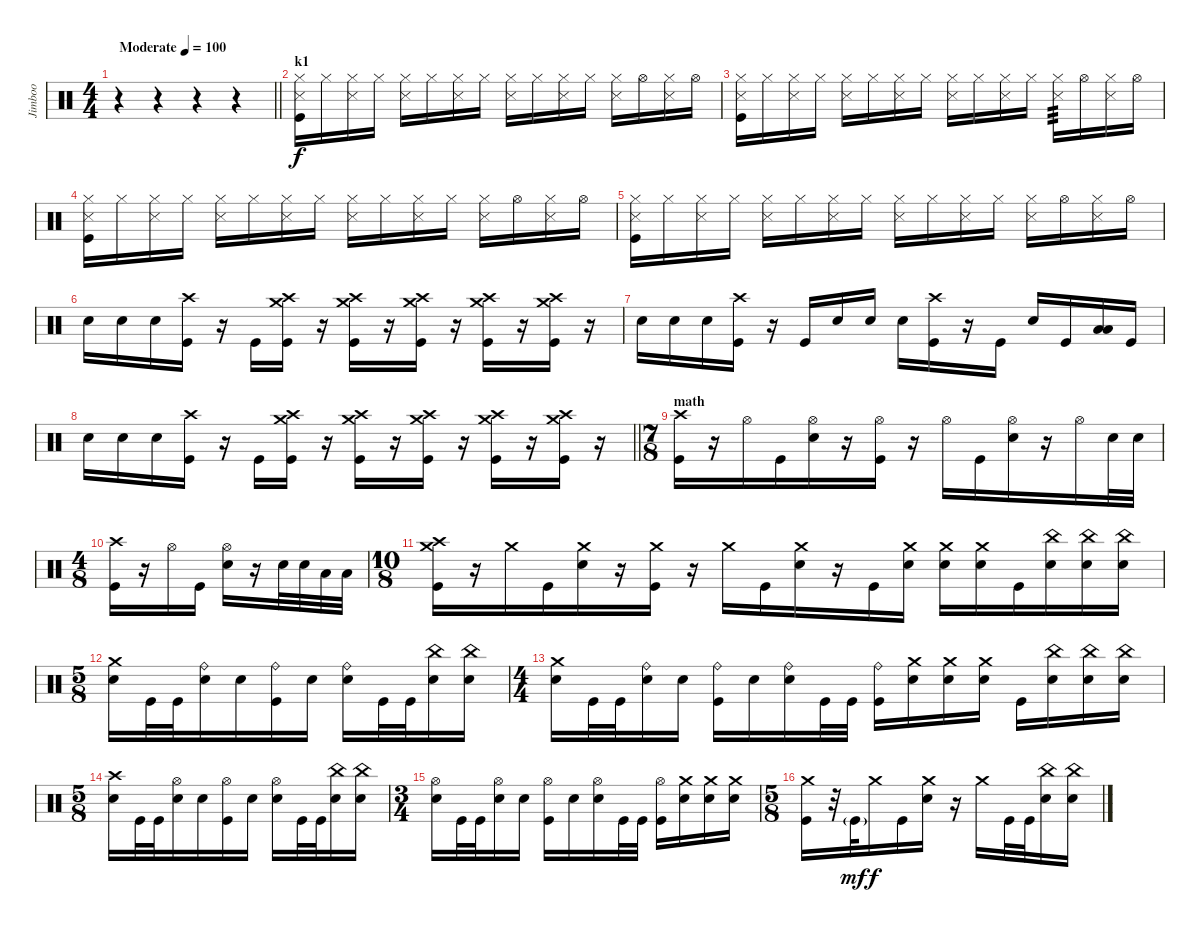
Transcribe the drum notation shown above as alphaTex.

\track ("Jimboo" "Jimboo") {instrument percussion}
\staff
\articulation defaults
\ts (4 4)
\tempo (100 "Moderate")
\clef neutral
\barLineRight lightlight
\ks c
r.4{dy f} r.4 r.4 r.4 |
\section ("" "k1")
("Snare (side stick) 3" "Hi-Hat (closed)" "Kick (hit)").16 "Hi-Hat (closed)".16 ("Snare (side stick) 3" "Hi-Hat (closed)").16 "Hi-Hat (closed)".16 ("Snare (side stick) 3" "Hi-Hat (closed)").16 "Hi-Hat (closed)".16 ("Snare (side stick) 3" "Hi-Hat (closed)").16 "Hi-Hat (closed)".16 ("Snare (side stick) 3" "Hi-Hat (closed)").16 "Hi-Hat (closed)".16 ("Snare (side stick) 3" "Hi-Hat (closed)").16 "Hi-Hat (closed)".16 ("Snare (side stick) 3" "Hi-Hat (closed)").16 "Hi-Hat (open)".16 ("Snare (side stick) 3" "Hi-Hat (closed)").16 "Hi-Hat (open)".16 |
("Snare (side stick) 3" "Hi-Hat (closed)" "Kick (hit)").16 "Hi-Hat (closed)".16 ("Snare (side stick) 3" "Hi-Hat (closed)").16 "Hi-Hat (closed)".16 ("Snare (side stick) 3" "Hi-Hat (closed)").16 "Hi-Hat (closed)".16 ("Snare (side stick) 3" "Hi-Hat (closed)").16 "Hi-Hat (closed)".16 ("Snare (side stick) 3" "Hi-Hat (closed)").16 "Hi-Hat (closed)".16 ("Snare (side stick) 3" "Hi-Hat (closed)").16 "Hi-Hat (closed)".16 ("Snare (side stick) 3" "Hi-Hat (closed)").16{tp 3} "Hi-Hat (open)".16 ("Snare (side stick) 3" "Hi-Hat (closed)").16 "Hi-Hat (open)".16 |
("Snare (side stick) 3" "Hi-Hat (closed)" "Kick (hit)").16 "Hi-Hat (closed)".16 ("Snare (side stick) 3" "Hi-Hat (closed)").16 "Hi-Hat (closed)".16 ("Snare (side stick) 3" "Hi-Hat (closed)").16 "Hi-Hat (closed)".16 ("Snare (side stick) 3" "Hi-Hat (closed)").16 "Hi-Hat (closed)".16 ("Snare (side stick) 3" "Hi-Hat (closed)").16 "Hi-Hat (closed)".16 ("Snare (side stick) 3" "Hi-Hat (closed)").16 "Hi-Hat (closed)".16 ("Snare (side stick) 3" "Hi-Hat (closed)").16 "Hi-Hat (open)".16 ("Snare (side stick) 3" "Hi-Hat (closed)").16 "Hi-Hat (open)".16 |
("Snare (side stick) 3" "Hi-Hat (closed)" "Kick (hit)").16 "Hi-Hat (closed)".16 ("Snare (side stick) 3" "Hi-Hat (closed)").16 "Hi-Hat (closed)".16 ("Snare (side stick) 3" "Hi-Hat (closed)").16 "Hi-Hat (closed)".16 ("Snare (side stick) 3" "Hi-Hat (closed)").16 "Hi-Hat (closed)".16 ("Snare (side stick) 3" "Hi-Hat (closed)").16 "Hi-Hat (closed)".16 ("Snare (side stick) 3" "Hi-Hat (closed)").16 "Hi-Hat (closed)".16 ("Snare (side stick) 3" "Hi-Hat (closed)").16 "Hi-Hat (open)".16 ("Snare (side stick) 3" "Hi-Hat (closed)").16 "Hi-Hat (open)".16 |
"Snare (hit) 2".16 "Snare (hit) 2".16 "Snare (hit) 2".16 ("Kick (hit)" "Crash high (hit)").16 r.16 "Kick (hit)".16 ("Kick (hit)" "Crash medium (hit)" "Crash high (hit)").16 r.16 ("Kick (hit)" "Crash medium (hit)" "Crash high (hit)").16 r.16 ("Kick (hit)" "Crash medium (hit)" "Crash high (hit)").16 r.16 ("Kick (hit)" "Crash medium (hit)" "Crash high (hit)").16 r.16 ("Kick (hit)" "Crash medium (hit)" "Crash high (hit)").16 r.16 |
"Snare (hit) 2".16 "Snare (hit) 2".16 "Snare (hit) 2".16 ("Kick (hit)" "Crash high (hit)").16 r.16 "Kick (hit)".16 "Snare (hit) 2".16 "Snare (hit) 2".16 "Snare (hit) 2".16 ("Kick (hit)" "Crash high (hit)").16 r.16 "Kick (hit)".16 "Snare (hit) 2".16 "Kick (hit)".16 ("Low Tom (hit)" "Low Floor Tom (hit)").16 "Kick (hit)".16 |
\barLineRight lightlight "Snare (hit) 2".16 "Snare (hit) 2".16 "Snare (hit) 2".16
("Kick (hit)" "Crash high (hit)").16 r.16 "Kick (hit)".16 ("Kick (hit)" "Crash medium (hit)" "Crash high (hit)").16 r.16 ("Kick (hit)" "Crash medium (hit)" "Crash high (hit)").16 r.16 ("Kick (hit)" "Crash medium (hit)" "Crash high (hit)").16 r.16 ("Kick (hit)" "Crash medium (hit)" "Crash high (hit)").16 r.16 ("Kick (hit)" "Crash medium (hit)" "Crash high (hit)").16 r.16 |
\ts (7 8)
\section ("" "math")
("Crash high (hit)" "Kick (hit)").16 r.16 "Hi-Hat (open)".16 "Kick (hit)".16 ("Hi-Hat (open)" "Snare (hit) 2").16 r.16 ("Hi-Hat (open)" "Kick (hit)").16 r.16 "Hi-Hat (open)".16 "Kick (hit)".16 ("Hi-Hat (open)" "Snare (hit) 2").16 r.16 "Hi-Hat (open)".16 "Snare (hit) 2".32 "Snare (hit) 2".32 |
\ts (4 8)
("Crash high (hit)" "Kick (hit)").16 r.16 "Hi-Hat (open)".16 "Kick (hit)".16 ("Hi-Hat (open)" "Snare (hit) 2").16 r.16 "Snare (hit) 2".32 "Snare (hit) 2".32 "Low Tom (hit)".32 "Low Tom (hit)".32 |
\ts (10 8)
("Crash medium (hit)" "Crash high (hit)" "Kick (hit)").16 r.16 "Crash medium (hit)".16 "Kick (hit)".16 ("Crash medium (hit)" "Snare (hit) 2").16 r.16 ("Crash medium (hit)" "Kick (hit)").16 r.16 "Crash medium (hit)".16 "Kick (hit)".16 ("Crash medium (hit)" "Snare (hit) 2").16 r.16 "Kick (hit)".16 ("Snare (hit) 2" "Crash medium (hit)").16 ("Snare (hit) 2" "Crash medium (hit)").16 ("Snare (hit) 2" "Crash medium (hit)").16 "Kick (hit)".16 ("Snare (hit) 2" "China (hit)").16 ("Snare (hit) 2" "China (hit)").16 ("Snare (hit) 2" "China (hit)").16 |
\ts (5 8)
("Snare (hit) 2" "Crash medium (hit)").16 "Kick (hit)".32 "Kick (hit)".32 ("Snare (hit) 2" "Ride (bell)").16 "Snare (hit) 2".16 ("Kick (hit)" "Ride (bell)").16 "Snare (hit) 2".16 ("Snare (hit) 2" "Ride (bell)").16 "Kick (hit)".32 "Kick (hit)".32 ("Snare (hit) 2" "China (hit)").16 ("Snare (hit) 2" "China (hit)").16 |
\ts (4 4)
("Snare (hit) 2" "Crash medium (hit)").16 "Kick (hit)".32 "Kick (hit)".32 ("Snare (hit) 2" "Ride (bell)").16 "Snare (hit) 2".16 ("Kick (hit)" "Ride (bell)").16 "Snare (hit) 2".16 ("Snare (hit) 2" "Ride (bell)").16 "Kick (hit)".32 "Kick (hit)".32 ("Kick (hit)" "Ride (bell)").16 ("Snare (hit) 2" "Crash medium (hit)").16 ("Snare (hit) 2" "Crash medium (hit)").16 ("Snare (hit) 2" "Crash medium (hit)").16 "Kick (hit)".16 ("Snare (hit) 2" "China (hit)").16 ("Snare (hit) 2" "China (hit)").16 ("Snare (hit) 2" "China (hit)").16 |
\ts (5 8)
("Snare (hit) 2" "Crash high (hit)").16 "Kick (hit)".32 "Kick (hit)".32 ("Snare (hit) 2" "Hi-Hat (open)").16 "Snare (hit) 2".16 ("Kick (hit)" "Hi-Hat (open)").16 "Snare (hit) 2".16 ("Snare (hit) 2" "Hi-Hat (open)").16 "Kick (hit)".32 "Kick (hit)".32 ("Snare (hit) 2" "China (hit)").16 ("Snare (hit) 2" "China (hit)").16 |
\ts (3 4)
("Snare (hit) 2" "Hi-Hat (open)").16 "Kick (hit)".32 "Kick (hit)".32 ("Snare (hit) 2" "Hi-Hat (open)").16 "Snare (hit) 2".16 ("Kick (hit)" "Hi-Hat (open)").16 "Snare (hit) 2".16 ("Snare (hit) 2" "Hi-Hat (open)").16 "Kick (hit)".32 "Kick (hit)".32 ("Kick (hit)" "Hi-Hat (open)").16 ("Snare (hit) 2" "Crash medium (hit)").16 ("Snare (hit) 2" "Crash medium (hit)").16 ("Snare (hit) 2" "Crash medium (hit)").16 |
\ts (5 8)
("Kick (hit)" "Crash medium (hit)").16 r.32 "Kick (hit)"{g}.32{dy mf} "Crash medium (hit)".16{dy f} "Kick (hit)".16 ("Snare (hit) 2" "Crash medium (hit)").16 r.16 "Crash medium (hit)".16 "Kick (hit)".32 "Kick (hit)".32 ("Snare (hit) 2" "China (hit)").16 ("Snare (hit) 2" "China (hit)").16
